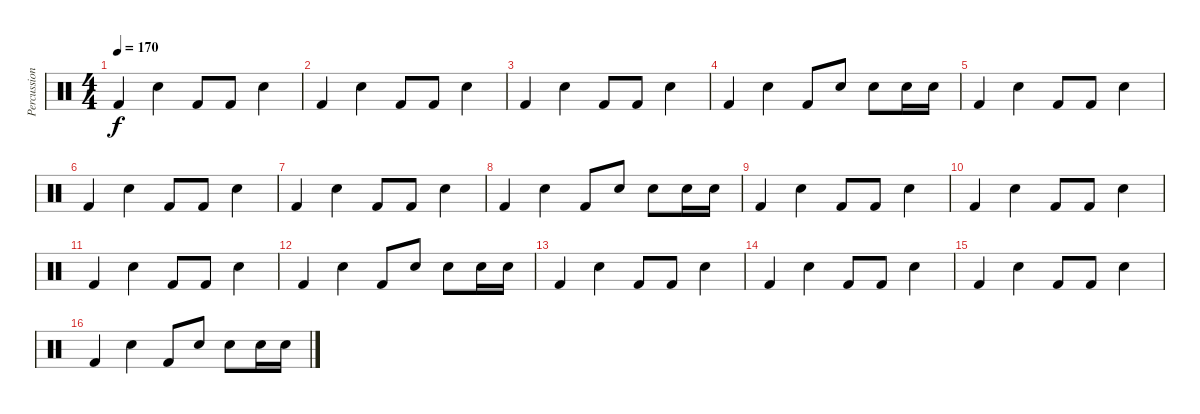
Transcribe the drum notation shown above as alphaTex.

\track ("Percussion" "Percussion") {instrument percussion}
\staff {score}
\articulation defaults
\ts (4 4)
\tempo 170
\clef neutral
\ks c "Kick (hit) 2".4{dy f} "Snare (hit) 2".4 "Kick (hit) 2".8 "Kick (hit) 2".8 "Snare (hit) 2".4
|
"Kick (hit) 2".4 "Snare (hit) 2".4 "Kick (hit) 2".8 "Kick (hit) 2".8 "Snare (hit) 2".4 |
"Kick (hit) 2".4 "Snare (hit) 2".4 "Kick (hit) 2".8 "Kick (hit) 2".8 "Snare (hit) 2".4 |
"Kick (hit) 2".4 "Snare (hit) 2".4 "Kick (hit) 2".8 "Snare (hit) 2".8 "Snare (hit) 2".8 "Snare (hit) 2".16 "Snare (hit) 2".16 |
"Kick (hit) 2".4 "Snare (hit) 2".4 "Kick (hit) 2".8 "Kick (hit) 2".8 "Snare (hit) 2".4 |
"Kick (hit) 2".4 "Snare (hit) 2".4 "Kick (hit) 2".8 "Kick (hit) 2".8 "Snare (hit) 2".4 |
"Kick (hit) 2".4 "Snare (hit) 2".4 "Kick (hit) 2".8 "Kick (hit) 2".8 "Snare (hit) 2".4 |
"Kick (hit) 2".4 "Snare (hit) 2".4 "Kick (hit) 2".8 "Snare (hit) 2".8 "Snare (hit) 2".8 "Snare (hit) 2".16 "Snare (hit) 2".16 |
"Kick (hit) 2".4 "Snare (hit) 2".4 "Kick (hit) 2".8 "Kick (hit) 2".8 "Snare (hit) 2".4 |
"Kick (hit) 2".4 "Snare (hit) 2".4 "Kick (hit) 2".8 "Kick (hit) 2".8 "Snare (hit) 2".4 |
"Kick (hit) 2".4 "Snare (hit) 2".4 "Kick (hit) 2".8 "Kick (hit) 2".8 "Snare (hit) 2".4 |
"Kick (hit) 2".4 "Snare (hit) 2".4 "Kick (hit) 2".8 "Snare (hit) 2".8 "Snare (hit) 2".8 "Snare (hit) 2".16 "Snare (hit) 2".16 |
"Kick (hit) 2".4 "Snare (hit) 2".4 "Kick (hit) 2".8 "Kick (hit) 2".8 "Snare (hit) 2".4 |
"Kick (hit) 2".4 "Snare (hit) 2".4 "Kick (hit) 2".8 "Kick (hit) 2".8 "Snare (hit) 2".4 |
"Kick (hit) 2".4 "Snare (hit) 2".4 "Kick (hit) 2".8 "Kick (hit) 2".8 "Snare (hit) 2".4 |
"Kick (hit) 2".4 "Snare (hit) 2".4 "Kick (hit) 2".8 "Snare (hit) 2".8 "Snare (hit) 2".8 "Snare (hit) 2".16 "Snare (hit) 2".16
